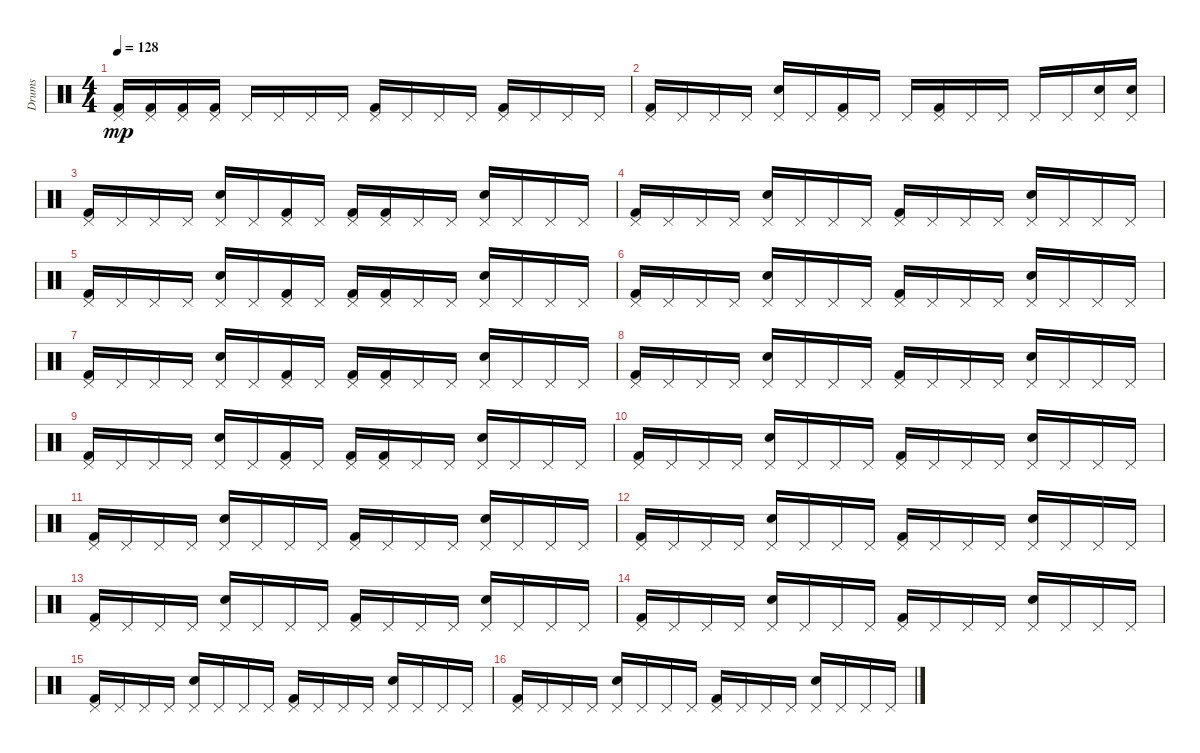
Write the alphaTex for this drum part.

\track ("Drums" "Drums") {instrument percussion}
\staff {score}
\articulation defaults
\ts (4 4)
\tempo 128
\clef neutral
\ks c
("Kick (hit) 2" "Pedal Hi-Hat (hit)").16{dy mp} ("Kick (hit) 2" "Pedal Hi-Hat (hit)").16 ("Pedal Hi-Hat (hit)" "Kick (hit) 2").16 ("Pedal Hi-Hat (hit)" "Kick (hit) 2").16 "Pedal Hi-Hat (hit)".16 "Pedal Hi-Hat (hit)".16 "Pedal Hi-Hat (hit)".16 "Pedal Hi-Hat (hit)".16 ("Kick (hit) 2" "Pedal Hi-Hat (hit)").16 "Pedal Hi-Hat (hit)".16 "Pedal Hi-Hat (hit)".16 "Pedal Hi-Hat (hit)".16 ("Pedal Hi-Hat (hit)" "Kick (hit) 2").16 "Pedal Hi-Hat (hit)".16 "Pedal Hi-Hat (hit)".16 "Pedal Hi-Hat (hit)".16 |
("Pedal Hi-Hat (hit)" "Kick (hit) 2").16 "Pedal Hi-Hat (hit)".16 "Pedal Hi-Hat (hit)".16 "Pedal Hi-Hat (hit)".16 ("Electric Snare (hit)" "Pedal Hi-Hat (hit)").16 "Pedal Hi-Hat (hit)".16 ("Pedal Hi-Hat (hit)" "Kick (hit) 2").16 "Pedal Hi-Hat (hit)".16 "Pedal Hi-Hat (hit)".16 ("Pedal Hi-Hat (hit)" "Kick (hit) 2").16 "Pedal Hi-Hat (hit)".16 "Pedal Hi-Hat (hit)".16 "Pedal Hi-Hat (hit)".16 "Pedal Hi-Hat (hit)".16 ("Pedal Hi-Hat (hit)" "Electric Snare (hit)").16 ("Pedal Hi-Hat (hit)" "Electric Snare (hit)").16 |
("Pedal Hi-Hat (hit)" "Kick (hit) 2").16 "Pedal Hi-Hat (hit)".16 "Pedal Hi-Hat (hit)".16 "Pedal Hi-Hat (hit)".16 ("Electric Snare (hit)" "Pedal Hi-Hat (hit)").16 "Pedal Hi-Hat (hit)".16 ("Pedal Hi-Hat (hit)" "Kick (hit) 2").16 "Pedal Hi-Hat (hit)".16 ("Pedal Hi-Hat (hit)" "Kick (hit) 2").16 ("Kick (hit) 2" "Pedal Hi-Hat (hit)").16 "Pedal Hi-Hat (hit)".16 "Pedal Hi-Hat (hit)".16 ("Electric Snare (hit)" "Pedal Hi-Hat (hit)").16 "Pedal Hi-Hat (hit)".16 "Pedal Hi-Hat (hit)".16 "Pedal Hi-Hat (hit)".16 |
("Pedal Hi-Hat (hit)" "Kick (hit) 2").16 "Pedal Hi-Hat (hit)".16 "Pedal Hi-Hat (hit)".16 "Pedal Hi-Hat (hit)".16 ("Pedal Hi-Hat (hit)" "Electric Snare (hit)").16 "Pedal Hi-Hat (hit)".16 "Pedal Hi-Hat (hit)".16 "Pedal Hi-Hat (hit)".16 ("Pedal Hi-Hat (hit)" "Kick (hit) 2").16 "Pedal Hi-Hat (hit)".16 "Pedal Hi-Hat (hit)".16 "Pedal Hi-Hat (hit)".16 ("Pedal Hi-Hat (hit)" "Electric Snare (hit)").16 "Pedal Hi-Hat (hit)".16 "Pedal Hi-Hat (hit)".16 "Pedal Hi-Hat (hit)".16 |
("Kick (hit) 2" "Pedal Hi-Hat (hit)").16 "Pedal Hi-Hat (hit)".16 "Pedal Hi-Hat (hit)".16 "Pedal Hi-Hat (hit)".16 ("Pedal Hi-Hat (hit)" "Electric Snare (hit)").16 "Pedal Hi-Hat (hit)".16 ("Pedal Hi-Hat (hit)" "Kick (hit) 2").16 "Pedal Hi-Hat (hit)".16 ("Kick (hit) 2" "Pedal Hi-Hat (hit)").16 ("Kick (hit) 2" "Pedal Hi-Hat (hit)").16 "Pedal Hi-Hat (hit)".16 "Pedal Hi-Hat (hit)".16 ("Pedal Hi-Hat (hit)" "Electric Snare (hit)").16 "Pedal Hi-Hat (hit)".16 "Pedal Hi-Hat (hit)".16 "Pedal Hi-Hat (hit)".16 |
("Kick (hit) 2" "Pedal Hi-Hat (hit)").16 "Pedal Hi-Hat (hit)".16 "Pedal Hi-Hat (hit)".16 "Pedal Hi-Hat (hit)".16 ("Pedal Hi-Hat (hit)" "Electric Snare (hit)").16 "Pedal Hi-Hat (hit)".16 "Pedal Hi-Hat (hit)".16 "Pedal Hi-Hat (hit)".16 ("Kick (hit) 2" "Pedal Hi-Hat (hit)").16 "Pedal Hi-Hat (hit)".16 "Pedal Hi-Hat (hit)".16 "Pedal Hi-Hat (hit)".16 ("Electric Snare (hit)" "Pedal Hi-Hat (hit)").16 "Pedal Hi-Hat (hit)".16 "Pedal Hi-Hat (hit)".16 "Pedal Hi-Hat (hit)".16 |
("Kick (hit) 2" "Pedal Hi-Hat (hit)").16 "Pedal Hi-Hat (hit)".16 "Pedal Hi-Hat (hit)".16 "Pedal Hi-Hat (hit)".16 ("Electric Snare (hit)" "Pedal Hi-Hat (hit)").16 "Pedal Hi-Hat (hit)".16 ("Pedal Hi-Hat (hit)" "Kick (hit) 2").16 "Pedal Hi-Hat (hit)".16 ("Pedal Hi-Hat (hit)" "Kick (hit) 2").16 ("Kick (hit) 2" "Pedal Hi-Hat (hit)").16 "Pedal Hi-Hat (hit)".16 "Pedal Hi-Hat (hit)".16 ("Electric Snare (hit)" "Pedal Hi-Hat (hit)").16 "Pedal Hi-Hat (hit)".16 "Pedal Hi-Hat (hit)".16 "Pedal Hi-Hat (hit)".16 |
("Kick (hit) 2" "Pedal Hi-Hat (hit)").16 "Pedal Hi-Hat (hit)".16 "Pedal Hi-Hat (hit)".16 "Pedal Hi-Hat (hit)".16 ("Electric Snare (hit)" "Pedal Hi-Hat (hit)").16 "Pedal Hi-Hat (hit)".16 "Pedal Hi-Hat (hit)".16 "Pedal Hi-Hat (hit)".16 ("Pedal Hi-Hat (hit)" "Kick (hit) 2").16 "Pedal Hi-Hat (hit)".16 "Pedal Hi-Hat (hit)".16 "Pedal Hi-Hat (hit)".16 ("Electric Snare (hit)" "Pedal Hi-Hat (hit)").16 "Pedal Hi-Hat (hit)".16 "Pedal Hi-Hat (hit)".16 "Pedal Hi-Hat (hit)".16 |
("Kick (hit) 2" "Pedal Hi-Hat (hit)").16 "Pedal Hi-Hat (hit)".16 "Pedal Hi-Hat (hit)".16 "Pedal Hi-Hat (hit)".16 ("Electric Snare (hit)" "Pedal Hi-Hat (hit)").16 "Pedal Hi-Hat (hit)".16 ("Kick (hit) 2" "Pedal Hi-Hat (hit)").16 "Pedal Hi-Hat (hit)".16 ("Kick (hit) 2" "Pedal Hi-Hat (hit)").16 ("Pedal Hi-Hat (hit)" "Kick (hit) 2").16 "Pedal Hi-Hat (hit)".16 "Pedal Hi-Hat (hit)".16 ("Pedal Hi-Hat (hit)" "Electric Snare (hit)").16 "Pedal Hi-Hat (hit)".16 "Pedal Hi-Hat (hit)".16 "Pedal Hi-Hat (hit)".16 |
("Pedal Hi-Hat (hit)" "Kick (hit) 2").16 "Pedal Hi-Hat (hit)".16 "Pedal Hi-Hat (hit)".16 "Pedal Hi-Hat (hit)".16 ("Electric Snare (hit)" "Pedal Hi-Hat (hit)").16 "Pedal Hi-Hat (hit)".16 "Pedal Hi-Hat (hit)".16 "Pedal Hi-Hat (hit)".16 ("Pedal Hi-Hat (hit)" "Kick (hit) 2").16 "Pedal Hi-Hat (hit)".16 "Pedal Hi-Hat (hit)".16 "Pedal Hi-Hat (hit)".16 ("Electric Snare (hit)" "Pedal Hi-Hat (hit)").16 "Pedal Hi-Hat (hit)".16 "Pedal Hi-Hat (hit)".16 "Pedal Hi-Hat (hit)".16 |
("Kick (hit) 2" "Pedal Hi-Hat (hit)").16 "Pedal Hi-Hat (hit)".16 "Pedal Hi-Hat (hit)".16 "Pedal Hi-Hat (hit)".16 ("Electric Snare (hit)" "Pedal Hi-Hat (hit)").16 "Pedal Hi-Hat (hit)".16 "Pedal Hi-Hat (hit)".16 "Pedal Hi-Hat (hit)".16 ("Kick (hit) 2" "Pedal Hi-Hat (hit)").16 "Pedal Hi-Hat (hit)".16 "Pedal Hi-Hat (hit)".16 "Pedal Hi-Hat (hit)".16 ("Pedal Hi-Hat (hit)" "Electric Snare (hit)").16 "Pedal Hi-Hat (hit)".16 "Pedal Hi-Hat (hit)".16 "Pedal Hi-Hat (hit)".16 |
("Pedal Hi-Hat (hit)" "Kick (hit) 2").16 "Pedal Hi-Hat (hit)".16 "Pedal Hi-Hat (hit)".16 "Pedal Hi-Hat (hit)".16 ("Electric Snare (hit)" "Pedal Hi-Hat (hit)").16 "Pedal Hi-Hat (hit)".16 "Pedal Hi-Hat (hit)".16 "Pedal Hi-Hat (hit)".16 ("Kick (hit) 2" "Pedal Hi-Hat (hit)").16 "Pedal Hi-Hat (hit)".16 "Pedal Hi-Hat (hit)".16 "Pedal Hi-Hat (hit)".16 ("Electric Snare (hit)" "Pedal Hi-Hat (hit)").16 "Pedal Hi-Hat (hit)".16 "Pedal Hi-Hat (hit)".16 "Pedal Hi-Hat (hit)".16 |
("Pedal Hi-Hat (hit)" "Kick (hit) 2").16 "Pedal Hi-Hat (hit)".16 "Pedal Hi-Hat (hit)".16 "Pedal Hi-Hat (hit)".16 ("Pedal Hi-Hat (hit)" "Electric Snare (hit)").16 "Pedal Hi-Hat (hit)".16 "Pedal Hi-Hat (hit)".16 "Pedal Hi-Hat (hit)".16 ("Kick (hit) 2" "Pedal Hi-Hat (hit)").16 "Pedal Hi-Hat (hit)".16 "Pedal Hi-Hat (hit)".16 "Pedal Hi-Hat (hit)".16 ("Pedal Hi-Hat (hit)" "Electric Snare (hit)").16 "Pedal Hi-Hat (hit)".16 "Pedal Hi-Hat (hit)".16 "Pedal Hi-Hat (hit)".16 |
("Pedal Hi-Hat (hit)" "Kick (hit) 2").16 "Pedal Hi-Hat (hit)".16 "Pedal Hi-Hat (hit)".16 "Pedal Hi-Hat (hit)".16 ("Pedal Hi-Hat (hit)" "Electric Snare (hit)").16 "Pedal Hi-Hat (hit)".16 "Pedal Hi-Hat (hit)".16 "Pedal Hi-Hat (hit)".16 ("Kick (hit) 2" "Pedal Hi-Hat (hit)").16 "Pedal Hi-Hat (hit)".16 "Pedal Hi-Hat (hit)".16 "Pedal Hi-Hat (hit)".16 ("Electric Snare (hit)" "Pedal Hi-Hat (hit)").16 "Pedal Hi-Hat (hit)".16 "Pedal Hi-Hat (hit)".16 "Pedal Hi-Hat (hit)".16 |
("Kick (hit) 2" "Pedal Hi-Hat (hit)").16 "Pedal Hi-Hat (hit)".16 "Pedal Hi-Hat (hit)".16 "Pedal Hi-Hat (hit)".16 ("Pedal Hi-Hat (hit)" "Electric Snare (hit)").16 "Pedal Hi-Hat (hit)".16 "Pedal Hi-Hat (hit)".16 "Pedal Hi-Hat (hit)".16 ("Kick (hit) 2" "Pedal Hi-Hat (hit)").16 "Pedal Hi-Hat (hit)".16 "Pedal Hi-Hat (hit)".16 "Pedal Hi-Hat (hit)".16 ("Electric Snare (hit)" "Pedal Hi-Hat (hit)").16 "Pedal Hi-Hat (hit)".16 "Pedal Hi-Hat (hit)".16 "Pedal Hi-Hat (hit)".16 |
("Pedal Hi-Hat (hit)" "Kick (hit) 2").16 "Pedal Hi-Hat (hit)".16 "Pedal Hi-Hat (hit)".16 "Pedal Hi-Hat (hit)".16 ("Electric Snare (hit)" "Pedal Hi-Hat (hit)").16 "Pedal Hi-Hat (hit)".16 "Pedal Hi-Hat (hit)".16 "Pedal Hi-Hat (hit)".16 ("Kick (hit) 2" "Pedal Hi-Hat (hit)").16 "Pedal Hi-Hat (hit)".16 "Pedal Hi-Hat (hit)".16 "Pedal Hi-Hat (hit)".16 ("Electric Snare (hit)" "Pedal Hi-Hat (hit)").16 "Pedal Hi-Hat (hit)".16 "Pedal Hi-Hat (hit)".16 "Pedal Hi-Hat (hit)".16
